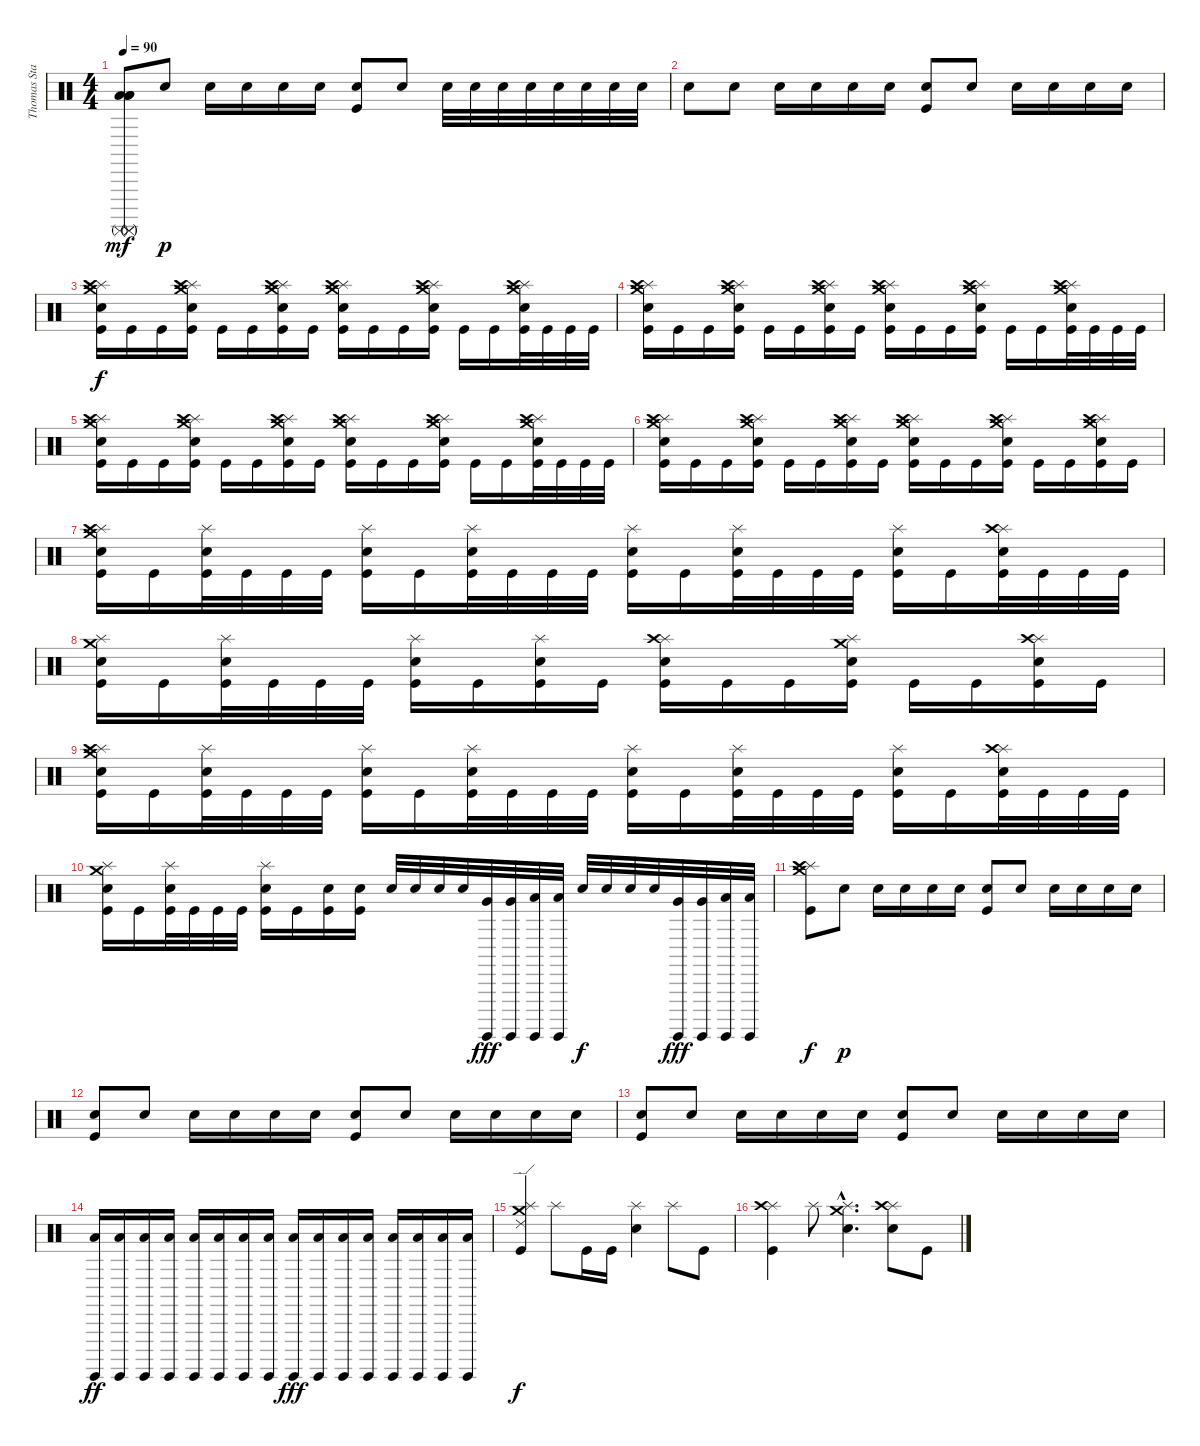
\track ("Thomas Stauch" "Thomas Sta") {instrument percussion}
\staff {score}
\articulation defaults
\ts (4 4)
\tempo 90
\clef neutral
\ks c
("Surdo (mute)" "Low Floor Tom (hit)" "Surdo (mute)" "Low Floor Tom (hit)" "Surdo (mute)" "Low Floor Tom (hit)").8{dy mf} "Electric Snare (hit)".8{dy p} "Electric Snare (hit)".16 "Electric Snare (hit)".16 "Electric Snare (hit)".16 "Electric Snare (hit)".16 ("Electric Snare (hit)" "Kick (hit)").8 "Electric Snare (hit)".8 "Electric Snare (hit)".32 "Electric Snare (hit)".32 "Electric Snare (hit)".32 "Electric Snare (hit)".32 "Electric Snare (hit)".32 "Electric Snare (hit)".32 "Electric Snare (hit)".32 "Electric Snare (hit)".32 |
"Electric Snare (hit)".8 "Electric Snare (hit)".8 "Electric Snare (hit)".16 "Electric Snare (hit)".16 "Electric Snare (hit)".16 "Electric Snare (hit)".16 ("Electric Snare (hit)" "Kick (hit)").8 "Electric Snare (hit)".8 "Electric Snare (hit)".16 "Electric Snare (hit)".16 "Electric Snare (hit)".16 "Electric Snare (hit)".16 |
("Crash medium (hit)" "Splash (hit)" "Crash high (hit)" "Electric Snare (hit)" "Kick (hit)").16{dy f} "Kick (hit)".16 "Kick (hit)".16 ("Crash medium (hit)" "Splash (hit)" "Crash high (hit)" "Electric Snare (hit)" "Kick (hit)").16 "Kick (hit)".16 "Kick (hit)".16 ("Crash medium (hit)" "Splash (hit)" "Crash high (hit)" "Electric Snare (hit)" "Kick (hit)").16 "Kick (hit)".16 ("Crash medium (hit)" "Splash (hit)" "Crash high (hit)" "Electric Snare (hit)" "Kick (hit)").16 "Kick (hit)".16 "Kick (hit)".16 ("Crash medium (hit)" "Splash (hit)" "Crash high (hit)" "Electric Snare (hit)" "Kick (hit)").16 "Kick (hit)".16 "Kick (hit)".16 ("Crash medium (hit)" "Splash (hit)" "Crash high (hit)" "Electric Snare (hit)" "Kick (hit)").32 "Kick (hit)".32 "Kick (hit)".32 "Kick (hit)".32 |
("Crash medium (hit)" "Splash (hit)" "Crash high (hit)" "Electric Snare (hit)" "Kick (hit)").16 "Kick (hit)".16 "Kick (hit)".16 ("Crash medium (hit)" "Splash (hit)" "Crash high (hit)" "Electric Snare (hit)" "Kick (hit)").16 "Kick (hit)".16 "Kick (hit)".16 ("Crash medium (hit)" "Splash (hit)" "Crash high (hit)" "Electric Snare (hit)" "Kick (hit)").16 "Kick (hit)".16 ("Crash medium (hit)" "Splash (hit)" "Crash high (hit)" "Electric Snare (hit)" "Kick (hit)").16 "Kick (hit)".16 "Kick (hit)".16 ("Crash medium (hit)" "Splash (hit)" "Crash high (hit)" "Electric Snare (hit)" "Kick (hit)").16 "Kick (hit)".16 "Kick (hit)".16 ("Crash medium (hit)" "Splash (hit)" "Crash high (hit)" "Electric Snare (hit)" "Kick (hit)").32 "Kick (hit)".32 "Kick (hit)".32 "Kick (hit)".32 |
("Crash medium (hit)" "Splash (hit)" "Crash high (hit)" "Electric Snare (hit)" "Kick (hit)").16 "Kick (hit)".16 "Kick (hit)".16 ("Crash medium (hit)" "Splash (hit)" "Crash high (hit)" "Electric Snare (hit)" "Kick (hit)").16 "Kick (hit)".16 "Kick (hit)".16 ("Crash medium (hit)" "Splash (hit)" "Crash high (hit)" "Electric Snare (hit)" "Kick (hit)").16 "Kick (hit)".16 ("Crash medium (hit)" "Splash (hit)" "Crash high (hit)" "Electric Snare (hit)" "Kick (hit)").16 "Kick (hit)".16 "Kick (hit)".16 ("Crash medium (hit)" "Splash (hit)" "Crash high (hit)" "Electric Snare (hit)" "Kick (hit)").16 "Kick (hit)".16 "Kick (hit)".16 ("Crash medium (hit)" "Splash (hit)" "Crash high (hit)" "Electric Snare (hit)" "Kick (hit)").32 "Kick (hit)".32 "Kick (hit)".32 "Kick (hit)".32 |
("Crash medium (hit)" "Splash (hit)" "Crash high (hit)" "Electric Snare (hit)" "Kick (hit)").16 "Kick (hit)".16 "Kick (hit)".16 ("Crash medium (hit)" "Splash (hit)" "Crash high (hit)" "Electric Snare (hit)" "Kick (hit)").16 "Kick (hit)".16 "Kick (hit)".16 ("Crash medium (hit)" "Splash (hit)" "Crash high (hit)" "Electric Snare (hit)" "Kick (hit)").16 "Kick (hit)".16 ("Crash medium (hit)" "Splash (hit)" "Crash high (hit)" "Electric Snare (hit)" "Kick (hit)").16 "Kick (hit)".16 "Kick (hit)".16 ("Crash medium (hit)" "Splash (hit)" "Crash high (hit)" "Electric Snare (hit)" "Kick (hit)").16 "Kick (hit)".16 "Kick (hit)".16 ("Crash medium (hit)" "Splash (hit)" "Crash high (hit)" "Electric Snare (hit)" "Kick (hit)").16 "Kick (hit)".16 |
("Crash medium (hit)" "Splash (hit)" "Crash high (hit)" "Electric Snare (hit)" "Kick (hit)").16 "Kick (hit)".16 ("Splash (hit)" "Electric Snare (hit)" "Kick (hit)").32 "Kick (hit)".32 "Kick (hit)".32 "Kick (hit)".32 ("Splash (hit)" "Electric Snare (hit)" "Kick (hit)").16 "Kick (hit)".16 ("Splash (hit)" "Electric Snare (hit)" "Kick (hit)").32 "Kick (hit)".32 "Kick (hit)".32 "Kick (hit)".32 ("Splash (hit)" "Electric Snare (hit)" "Kick (hit)").16 "Kick (hit)".16 ("Splash (hit)" "Electric Snare (hit)" "Kick (hit)").32 "Kick (hit)".32 "Kick (hit)".32 "Kick (hit)".32 ("Splash (hit)" "Electric Snare (hit)" "Kick (hit)").16 "Kick (hit)".16 ("Splash (hit)" "Crash high (hit)" "Electric Snare (hit)" "Kick (hit)").32 "Kick (hit)".32 "Kick (hit)".32 "Kick (hit)".32 |
("Crash medium (hit)" "Splash (hit)" "Electric Snare (hit)" "Kick (hit)").16 "Kick (hit)".16 ("Splash (hit)" "Electric Snare (hit)" "Kick (hit)").32 "Kick (hit)".32 "Kick (hit)".32 "Kick (hit)".32 ("Splash (hit)" "Electric Snare (hit)" "Kick (hit)").16 "Kick (hit)".16 ("Splash (hit)" "Electric Snare (hit)" "Kick (hit)").16 "Kick (hit)".16 ("Splash (hit)" "Crash high (hit)" "Electric Snare (hit)" "Kick (hit)").16 "Kick (hit)".16 "Kick (hit)".16 ("Crash medium (hit)" "Splash (hit)" "Electric Snare (hit)" "Kick (hit)").16 "Kick (hit)".16 "Kick (hit)".16 ("Splash (hit)" "Crash high (hit)" "Electric Snare (hit)" "Kick (hit)").16 "Kick (hit)".16 |
("Crash medium (hit)" "Splash (hit)" "Crash high (hit)" "Electric Snare (hit)" "Kick (hit)").16 "Kick (hit)".16 ("Splash (hit)" "Electric Snare (hit)" "Kick (hit)").32 "Kick (hit)".32 "Kick (hit)".32 "Kick (hit)".32 ("Splash (hit)" "Electric Snare (hit)" "Kick (hit)").16 "Kick (hit)".16 ("Splash (hit)" "Electric Snare (hit)" "Kick (hit)").32 "Kick (hit)".32 "Kick (hit)".32 "Kick (hit)".32 ("Splash (hit)" "Electric Snare (hit)" "Kick (hit)").16 "Kick (hit)".16 ("Splash (hit)" "Electric Snare (hit)" "Kick (hit)").32 "Kick (hit)".32 "Kick (hit)".32 "Kick (hit)".32 ("Splash (hit)" "Electric Snare (hit)" "Kick (hit)").16 "Kick (hit)".16 ("Splash (hit)" "Crash high (hit)" "Electric Snare (hit)" "Kick (hit)").32 "Kick (hit)".32 "Kick (hit)".32 "Kick (hit)".32 |
("Crash medium (hit)" "Splash (hit)" "Electric Snare (hit)" "Kick (hit)").16 "Kick (hit)".16 ("Splash (hit)" "Electric Snare (hit)" "Kick (hit)").32 "Kick (hit)".32 "Kick (hit)".32 "Kick (hit)".32 ("Splash (hit)" "Electric Snare (hit)" "Kick (hit)").16 "Kick (hit)".16 ("Electric Snare (hit)" "Kick (hit)").16 ("Electric Snare (hit)" "Kick (hit)").16 "Electric Snare (hit)".32 "Electric Snare (hit)".32 "Electric Snare (hit)".32 "Electric Snare (hit)".32 ("Surdo (hit)" "Very Low Tom (hit)").32{dy fff} ("Surdo (hit)" "Very Low Tom (hit)").32 ("Surdo (hit)" "Low Floor Tom (hit)").32 ("Surdo (hit)" "Low Floor Tom (hit)").32 "Electric Snare (hit)".32{dy f} "Electric Snare (hit)".32 "Electric Snare (hit)".32 "Electric Snare (hit)".32 ("Surdo (hit)" "Very Low Tom (hit)").32{dy fff} ("Surdo (hit)" "Very Low Tom (hit)").32 ("Surdo (hit)" "Low Floor Tom (hit)").32 ("Surdo (hit)" "Low Floor Tom (hit)").32 |
("Crash medium (hit)" "Splash (hit)" "Crash high (hit)" "Kick (hit)").8{dy f} "Electric Snare (hit)".8{dy p} "Electric Snare (hit)".16 "Electric Snare (hit)".16 "Electric Snare (hit)".16 "Electric Snare (hit)".16 ("Electric Snare (hit)" "Kick (hit)").8 "Electric Snare (hit)".8 "Electric Snare (hit)".16 "Electric Snare (hit)".16 "Electric Snare (hit)".16 "Electric Snare (hit)".16 |
("Electric Snare (hit)" "Kick (hit)").8 "Electric Snare (hit)".8 "Electric Snare (hit)".16 "Electric Snare (hit)".16 "Electric Snare (hit)".16 "Electric Snare (hit)".16 ("Electric Snare (hit)" "Kick (hit)").8 "Electric Snare (hit)".8 "Electric Snare (hit)".16 "Electric Snare (hit)".16 "Electric Snare (hit)".16 "Electric Snare (hit)".16 |
("Electric Snare (hit)" "Kick (hit)").8 "Electric Snare (hit)".8 "Electric Snare (hit)".16 "Electric Snare (hit)".16 "Electric Snare (hit)".16 "Electric Snare (hit)".16 ("Electric Snare (hit)" "Kick (hit)").8 "Electric Snare (hit)".8 "Electric Snare (hit)".16 "Electric Snare (hit)".16 "Electric Snare (hit)".16 "Electric Snare (hit)".16 |
("Surdo (hit)" "Low Floor Tom (hit)").16{dy ff} ("Surdo (hit)" "Low Floor Tom (hit)").16 ("Surdo (hit)" "Low Floor Tom (hit)").16 ("Surdo (hit)" "Low Floor Tom (hit)").16 ("Surdo (hit)" "Low Floor Tom (hit)").16 ("Surdo (hit)" "Low Floor Tom (hit)").16 ("Surdo (hit)" "Low Floor Tom (hit)").16 ("Surdo (hit)" "Low Floor Tom (hit)").16 ("Surdo (hit)" "Low Floor Tom (hit)").16{dy fff} ("Surdo (hit)" "Low Floor Tom (hit)").16 ("Surdo (hit)" "Low Floor Tom (hit)").16 ("Surdo (hit)" "Low Floor Tom (hit)").16 ("Surdo (hit)" "Low Floor Tom (hit)").16 ("Surdo (hit)" "Low Floor Tom (hit)").16 ("Surdo (hit)" "Low Floor Tom (hit)").16 ("Surdo (hit)" "Low Floor Tom (hit)").16 |
("Crash medium (hit)" "Splash (hit)" "Ride (edge) 2" "Kick (hit)").4{dy f} "Splash (hit)".8 "Kick (hit)".16 "Kick (hit)".16 ("Splash (hit)" "Electric Snare (hit)").4 "Splash (hit)".8 "Kick (hit)".8 |
("Splash (hit)" "Crash high (hit)" "Kick (hit)").4 "Splash (hit)".8 ("Crash medium (hit)"{hac} "Splash (hit)"{hac} "Electric Snare (hit)"{hac}).4{d} ("Splash (hit)" "Crash high (hit)" "Electric Snare (hit)").8 "Kick (hit)".8
